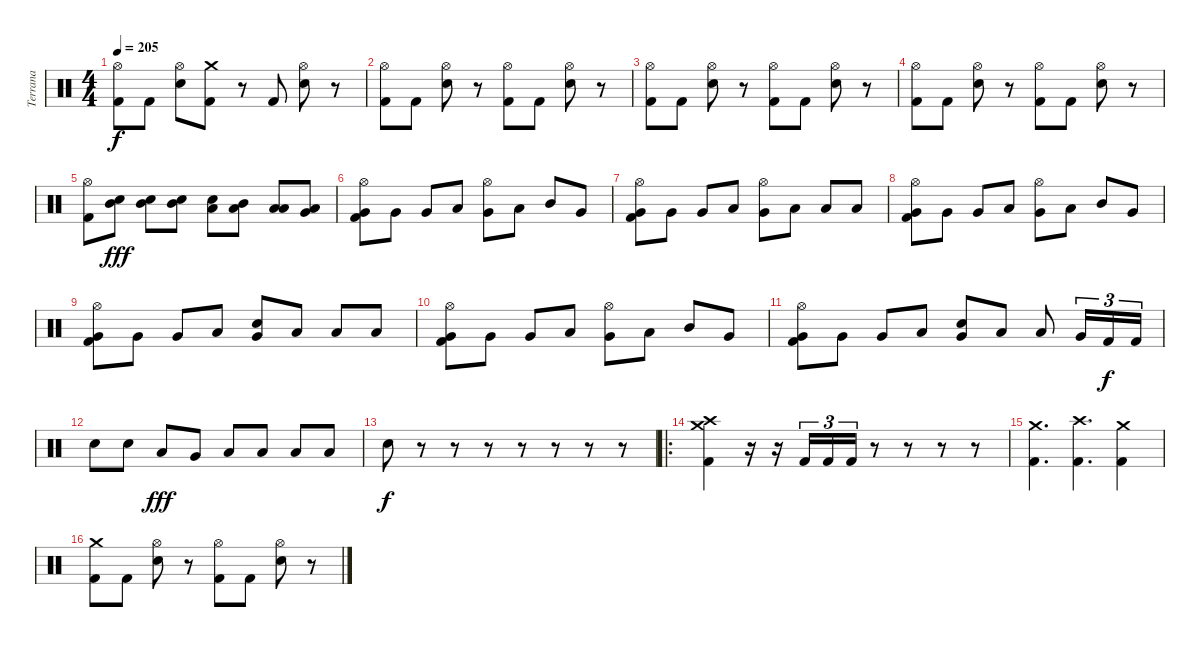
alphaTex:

\track ("Terrana" "Terrana") {instrument percussion}
\staff {score}
\articulation defaults
\ts (4 4)
\tempo 205
\clef neutral
\ks c
("Hi-Hat (open)" "Kick (hit) 2").8{dy f} "Kick (hit) 2".8 ("Hi-Hat (open)" "Electric Snare (hit)").8 ("Crash medium (hit)" "Kick (hit) 2").8 r.8 "Kick (hit) 2".8 ("Hi-Hat (open)" "Electric Snare (hit)").8 r.8 |
("Hi-Hat (open)" "Kick (hit) 2").8 "Kick (hit) 2".8 ("Hi-Hat (open)" "Electric Snare (hit)").8 r.8 ("Hi-Hat (open)" "Kick (hit) 2").8 "Kick (hit) 2".8 ("Hi-Hat (open)" "Electric Snare (hit)").8 r.8 |
("Hi-Hat (open)" "Kick (hit) 2").8 "Kick (hit) 2".8 ("Hi-Hat (open)" "Electric Snare (hit)").8 r.8 ("Hi-Hat (open)" "Kick (hit) 2").8 "Kick (hit) 2".8 ("Hi-Hat (open)" "Electric Snare (hit)").8 r.8 |
("Hi-Hat (open)" "Kick (hit) 2").8 "Kick (hit) 2".8 ("Hi-Hat (open)" "Electric Snare (hit)").8 r.8 ("Hi-Hat (open)" "Kick (hit) 2").8 "Kick (hit) 2".8 ("Hi-Hat (open)" "Electric Snare (hit)").8 r.8 |
("Hi-Hat (open)" "Kick (hit) 2").8 ("Mid Tom (hit)" "Electric Snare (hit)").8{dy fff} ("Mid Tom (hit)" "Electric Snare (hit)").8 ("Mid Tom (hit)" "Electric Snare (hit)").8 ("Low Tom (hit)" "Electric Snare (hit)").8 ("Low Tom (hit)" "Mid Tom (hit)").8 ("Low Floor Tom (hit)" "Low Tom (hit)").8 ("Low Floor Tom (hit)" "Very Low Tom (hit)").8 |
("Hi-Hat (open)" "Very Low Tom (hit)" "Kick (hit) 2").8 "Very Low Tom (hit)".8 "Very Low Tom (hit)".8 "Low Tom (hit)".8 ("Hi-Hat (open)" "Very Low Tom (hit)").8 "Low Tom (hit)".8 "Mid Tom (hit)".8 "Very Low Tom (hit)".8 |
("Hi-Hat (open)" "Very Low Tom (hit)" "Kick (hit) 2").8 "Very Low Tom (hit)".8 "Very Low Tom (hit)".8 "Low Tom (hit)".8 ("Hi-Hat (open)" "Very Low Tom (hit)").8 "Low Tom (hit)".8 "Low Floor Tom (hit)".8 "Low Floor Tom (hit)".8 |
("Hi-Hat (open)" "Very Low Tom (hit)" "Kick (hit) 2").8 "Very Low Tom (hit)".8 "Very Low Tom (hit)".8 "Low Tom (hit)".8 ("Hi-Hat (open)" "Very Low Tom (hit)").8 "Low Tom (hit)".8 "Mid Tom (hit)".8 "Very Low Tom (hit)".8 |
("Hi-Hat (open)" "Very Low Tom (hit)" "Kick (hit) 2").8 "Very Low Tom (hit)".8 "Very Low Tom (hit)".8 "Low Tom (hit)".8 ("Very Low Tom (hit)" "Electric Snare (hit)").8 "Low Tom (hit)".8 "Low Floor Tom (hit)".8 "Low Floor Tom (hit)".8 |
("Hi-Hat (open)" "Very Low Tom (hit)" "Kick (hit) 2").8 "Very Low Tom (hit)".8 "Very Low Tom (hit)".8 "Low Tom (hit)".8 ("Hi-Hat (open)" "Very Low Tom (hit)").8 "Low Tom (hit)".8 "Mid Tom (hit)".8 "Very Low Tom (hit)".8 |
("Hi-Hat (open)" "Very Low Tom (hit)" "Kick (hit) 2").8 "Very Low Tom (hit)".8 "Very Low Tom (hit)".8 "Low Tom (hit)".8 ("Very Low Tom (hit)" "Electric Snare (hit)").8 "Low Tom (hit)".8 "Low Floor Tom (hit)".8 "Very Low Tom (hit)".16{tu (3 2)} "Kick (hit) 2".16{tu (3 2) dy f} "Kick (hit) 2".16{tu (3 2)} |
"Electric Snare (hit)".8 "Electric Snare (hit)".8 "Low Tom (hit)".8{dy fff} "Very Low Tom (hit)".8 "Low Floor Tom (hit)".8 "Low Floor Tom (hit)".8 "Low Floor Tom (hit)".8 "Low Floor Tom (hit)".8 |
"Electric Snare (hit)".8{dy f} r.8 r.8 r.8 r.8 r.8 r.8 r.8 |
\ro
("Crash high (hit)" "Crash medium (hit)" "Kick (hit) 2").4 r.16 r.16 "Kick (hit) 2".16{tu (3 2)} "Kick (hit) 2".16{tu (3 2)} "Kick (hit) 2".16{tu (3 2)} r.8 r.8 r.8 r.8 |
("Crash medium (hit)" "Kick (hit) 2").4{d} ("Crash high (hit)" "Kick (hit) 2").4{d} ("Crash medium (hit)" "Kick (hit) 2").4 |
("Crash medium (hit)" "Kick (hit) 2").8 "Kick (hit) 2".8 ("Hi-Hat (open)" "Electric Snare (hit)").8 r.8 ("Hi-Hat (open)" "Kick (hit) 2").8 "Kick (hit) 2".8 ("Hi-Hat (open)" "Electric Snare (hit)").8 r.8
